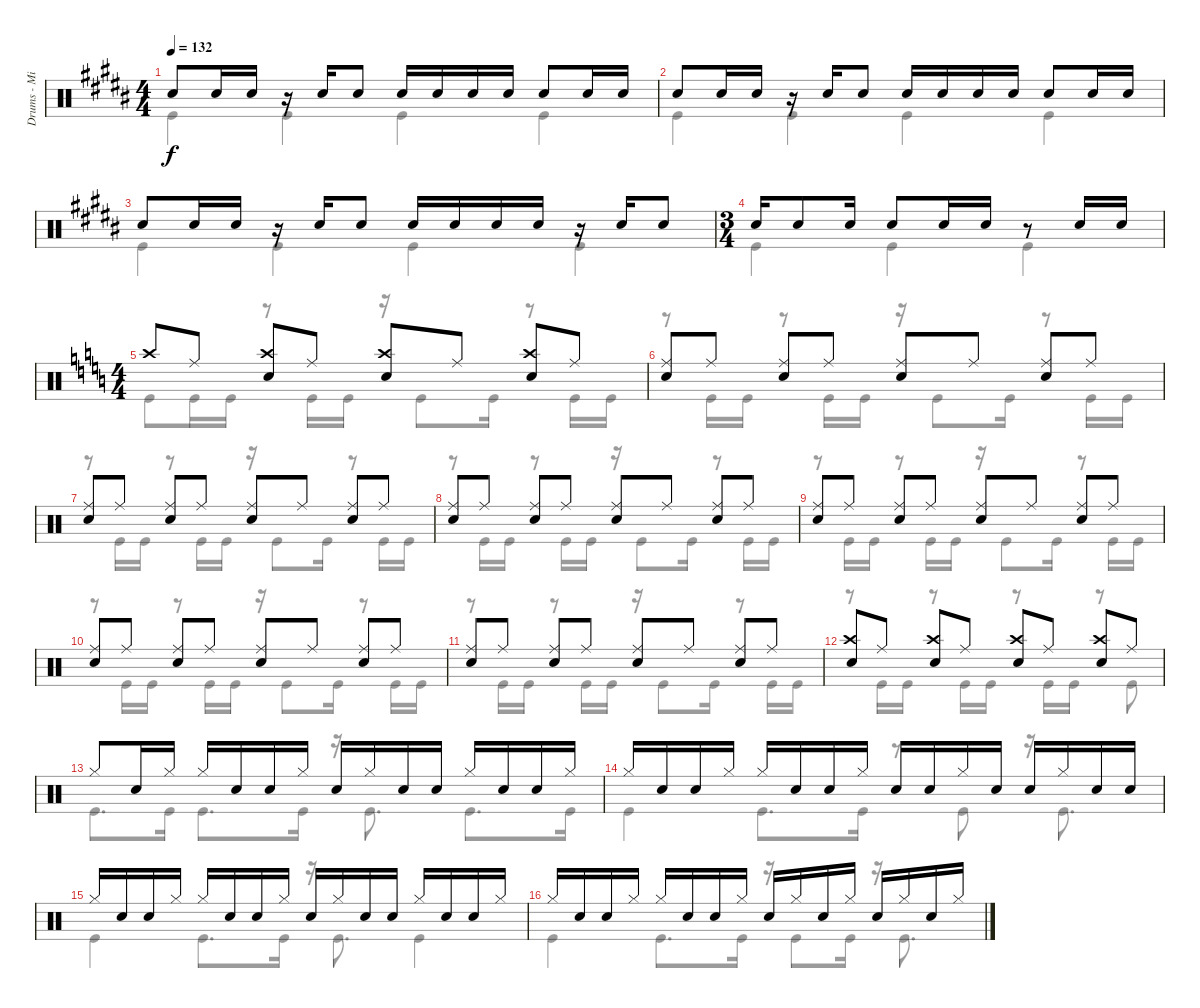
\track ("Drums - Mike Portnoy" "Drums - Mi") {instrument percussion}
\staff {score}
\articulation defaults
\voice
\ts (4 4)
\tempo 132
\clef neutral
\ks b "Snare (hit) 2".8{dy f} "Snare (hit) 2".16 "Snare (hit) 2".16
r.16 "Snare (hit) 2".16 "Snare (hit) 2".8 "Snare (hit) 2".16 "Snare (hit) 2".16 "Snare (hit) 2".16 "Snare (hit) 2".16 "Snare (hit) 2".8 "Snare (hit) 2".16 "Snare (hit) 2".16 |
"Snare (hit) 2".8 "Snare (hit) 2".16 "Snare (hit) 2".16 r.16 "Snare (hit) 2".16 "Snare (hit) 2".8 "Snare (hit) 2".16 "Snare (hit) 2".16 "Snare (hit) 2".16 "Snare (hit) 2".16 "Snare (hit) 2".8 "Snare (hit) 2".16 "Snare (hit) 2".16 |
"Snare (hit) 2".8 "Snare (hit) 2".16 "Snare (hit) 2".16 r.16 "Snare (hit) 2".16 "Snare (hit) 2".8 "Snare (hit) 2".16 "Snare (hit) 2".16 "Snare (hit) 2".16 "Snare (hit) 2".16 r.16 "Snare (hit) 2".16 "Snare (hit) 2".8 |
\ts (3 4)
"Snare (hit) 2".16 "Snare (hit) 2".8 "Snare (hit) 2".16 "Snare (hit) 2".8 "Snare (hit) 2".16 "Snare (hit) 2".16 r.8 "Snare (hit) 2".16 "Snare (hit) 2".16 |
\ts (4 4)
\ks c "Crash high (hit)".8 "Ride (middle)".8
("Crash high (hit)" "Snare (hit) 2").8 "Ride (middle)".8 ("Crash high (hit)" "Snare (hit) 2").8 "Ride (middle)".8 ("Crash high (hit)" "Snare (hit) 2").8 "Ride (middle)".8 |
("Ride (middle)" "Snare (hit) 2").8 "Ride (middle)".8 ("Ride (middle)" "Snare (hit) 2").8 "Ride (middle)".8 ("Ride (middle)" "Snare (hit) 2").8 "Ride (middle)".8 ("Ride (middle)" "Snare (hit) 2").8 "Ride (middle)".8 |
("Ride (middle)" "Snare (hit) 2").8 "Ride (middle)".8 ("Ride (middle)" "Snare (hit) 2").8 "Ride (middle)".8 ("Ride (middle)" "Snare (hit) 2").8 "Ride (middle)".8 ("Ride (middle)" "Snare (hit) 2").8 "Ride (middle)".8 |
("Ride (middle)" "Snare (hit) 2").8 "Ride (middle)".8 ("Ride (middle)" "Snare (hit) 2").8 "Ride (middle)".8 ("Ride (middle)" "Snare (hit) 2").8 "Ride (middle)".8 ("Ride (middle)" "Snare (hit) 2").8 "Ride (middle)".8 |
("Ride (middle)" "Snare (hit) 2").8 "Ride (middle)".8 ("Ride (middle)" "Snare (hit) 2").8 "Ride (middle)".8 ("Ride (middle)" "Snare (hit) 2").8 "Ride (middle)".8 ("Ride (middle)" "Snare (hit) 2").8 "Ride (middle)".8 |
("Ride (middle)" "Snare (hit) 2").8 "Ride (middle)".8 ("Ride (middle)" "Snare (hit) 2").8 "Ride (middle)".8 ("Ride (middle)" "Snare (hit) 2").8 "Ride (middle)".8 ("Ride (middle)" "Snare (hit) 2").8 "Ride (middle)".8 |
("Ride (middle)" "Snare (hit) 2").8 "Ride (middle)".8 ("Ride (middle)" "Snare (hit) 2").8 "Ride (middle)".8 ("Ride (middle)" "Snare (hit) 2").8 "Ride (middle)".8 ("Ride (middle)" "Snare (hit) 2").8 "Ride (middle)".8 |
("Crash high (hit)" "Snare (hit) 2").8 "Ride (middle)".8 ("Crash high (hit)" "Snare (hit) 2").8 "Ride (middle)".8 ("Crash high (hit)" "Snare (hit) 2").8 "Ride (middle)".8 ("Crash high (hit)" "Snare (hit) 2").8 "Ride (middle)".8 |
"Hi-Hat (closed)".8 "Snare (hit) 2".16 "Hi-Hat (closed)".16 "Hi-Hat (closed)".16 "Snare (hit) 2".16 "Snare (hit) 2".16 "Hi-Hat (closed)".16 "Snare (hit) 2".16 "Hi-Hat (closed)".16 "Snare (hit) 2".16 "Snare (hit) 2".16 "Hi-Hat (closed)".16 "Snare (hit) 2".16 "Snare (hit) 2".16 "Hi-Hat (closed)".16 |
"Hi-Hat (closed)".16 "Snare (hit) 2".16 "Snare (hit) 2".16 "Hi-Hat (closed)".16 "Hi-Hat (closed)".16 "Snare (hit) 2".16 "Snare (hit) 2".16 "Hi-Hat (closed)".16 "Snare (hit) 2".16 "Snare (hit) 2".16 "Hi-Hat (closed)".16 "Snare (hit) 2".16 "Snare (hit) 2".16 "Hi-Hat (closed)".16 "Snare (hit) 2".16 "Snare (hit) 2".16 |
"Hi-Hat (closed)".16 "Snare (hit) 2".16 "Snare (hit) 2".16 "Hi-Hat (closed)".16 "Hi-Hat (closed)".16 "Snare (hit) 2".16 "Snare (hit) 2".16 "Hi-Hat (closed)".16 "Snare (hit) 2".16 "Hi-Hat (closed)".16 "Snare (hit) 2".16 "Snare (hit) 2".16 "Hi-Hat (closed)".16 "Snare (hit) 2".16 "Snare (hit) 2".16 "Hi-Hat (closed)".16 |
"Hi-Hat (closed)".16 "Snare (hit) 2".16 "Snare (hit) 2".16 "Hi-Hat (closed)".16 "Hi-Hat (closed)".16 "Snare (hit) 2".16 "Snare (hit) 2".16 "Hi-Hat (closed)".16 "Snare (hit) 2".16 "Hi-Hat (closed)".16 "Snare (hit) 2".16 "Hi-Hat (closed)".16 "Snare (hit) 2".16 "Hi-Hat (closed)".16 "Snare (hit) 2".16 "Hi-Hat (closed)".16
\voice
\clef neutral
\ottava regular
\simile none
\ks b "Kick (hit)".4{dy f} "Kick (hit)".4 "Kick (hit)".4 "Kick (hit)".4
|
"Kick (hit)".4 "Kick (hit)".4 "Kick (hit)".4 "Kick (hit)".4 |
"Kick (hit)".4 "Kick (hit)".4 "Kick (hit)".4 "Kick (hit)".4 |
"Kick (hit)".4 "Kick (hit)".4 "Kick (hit)".4 |
\ks c "Kick (hit)".8 "Kick (hit)".16 "Kick (hit)".16
r.8 "Kick (hit)".16 "Kick (hit)".16 r.16 "Kick (hit)".8 "Kick (hit)".16 r.8 "Kick (hit)".16 "Kick (hit)".16 |
r.8 "Kick (hit)".16 "Kick (hit)".16 r.8 "Kick (hit)".16 "Kick (hit)".16 r.16 "Kick (hit)".8 "Kick (hit)".16 r.8 "Kick (hit)".16 "Kick (hit)".16 |
r.8 "Kick (hit)".16 "Kick (hit)".16 r.8 "Kick (hit)".16 "Kick (hit)".16 r.16 "Kick (hit)".8 "Kick (hit)".16 r.8 "Kick (hit)".16 "Kick (hit)".16 |
r.8 "Kick (hit)".16 "Kick (hit)".16 r.8 "Kick (hit)".16 "Kick (hit)".16 r.16 "Kick (hit)".8 "Kick (hit)".16 r.8 "Kick (hit)".16 "Kick (hit)".16 |
r.8 "Kick (hit)".16 "Kick (hit)".16 r.8 "Kick (hit)".16 "Kick (hit)".16 r.16 "Kick (hit)".8 "Kick (hit)".16 r.8 "Kick (hit)".16 "Kick (hit)".16 |
r.8 "Kick (hit)".16 "Kick (hit)".16 r.8 "Kick (hit)".16 "Kick (hit)".16 r.16 "Kick (hit)".8 "Kick (hit)".16 r.8 "Kick (hit)".16 "Kick (hit)".16 |
r.8 "Kick (hit)".16 "Kick (hit)".16 r.8 "Kick (hit)".16 "Kick (hit)".16 r.16 "Kick (hit)".8 "Kick (hit)".16 r.8 "Kick (hit)".16 "Kick (hit)".16 |
r.8 "Kick (hit)".16 "Kick (hit)".16 r.8 "Kick (hit)".16 "Kick (hit)".16 r.8 "Kick (hit)".16 "Kick (hit)".16 r.8 "Kick (hit)".8 |
"Kick (hit)".8{d} "Kick (hit)".16 "Kick (hit)".8{d} "Kick (hit)".16 r.16 "Kick (hit)".8{d} "Kick (hit)".8{d} "Kick (hit)".16 |
"Kick (hit)".4 "Kick (hit)".8{d} "Kick (hit)".16 r.8 "Kick (hit)".8 r.16 "Kick (hit)".8{d} |
"Kick (hit)".4 "Kick (hit)".8{d} "Kick (hit)".16 r.16 "Kick (hit)".8{d} "Kick (hit)".4 |
"Kick (hit)".4 "Kick (hit)".8{d} "Kick (hit)".16 r.16 "Kick (hit)".8 "Kick (hit)".16 r.16 "Kick (hit)".8{d}
